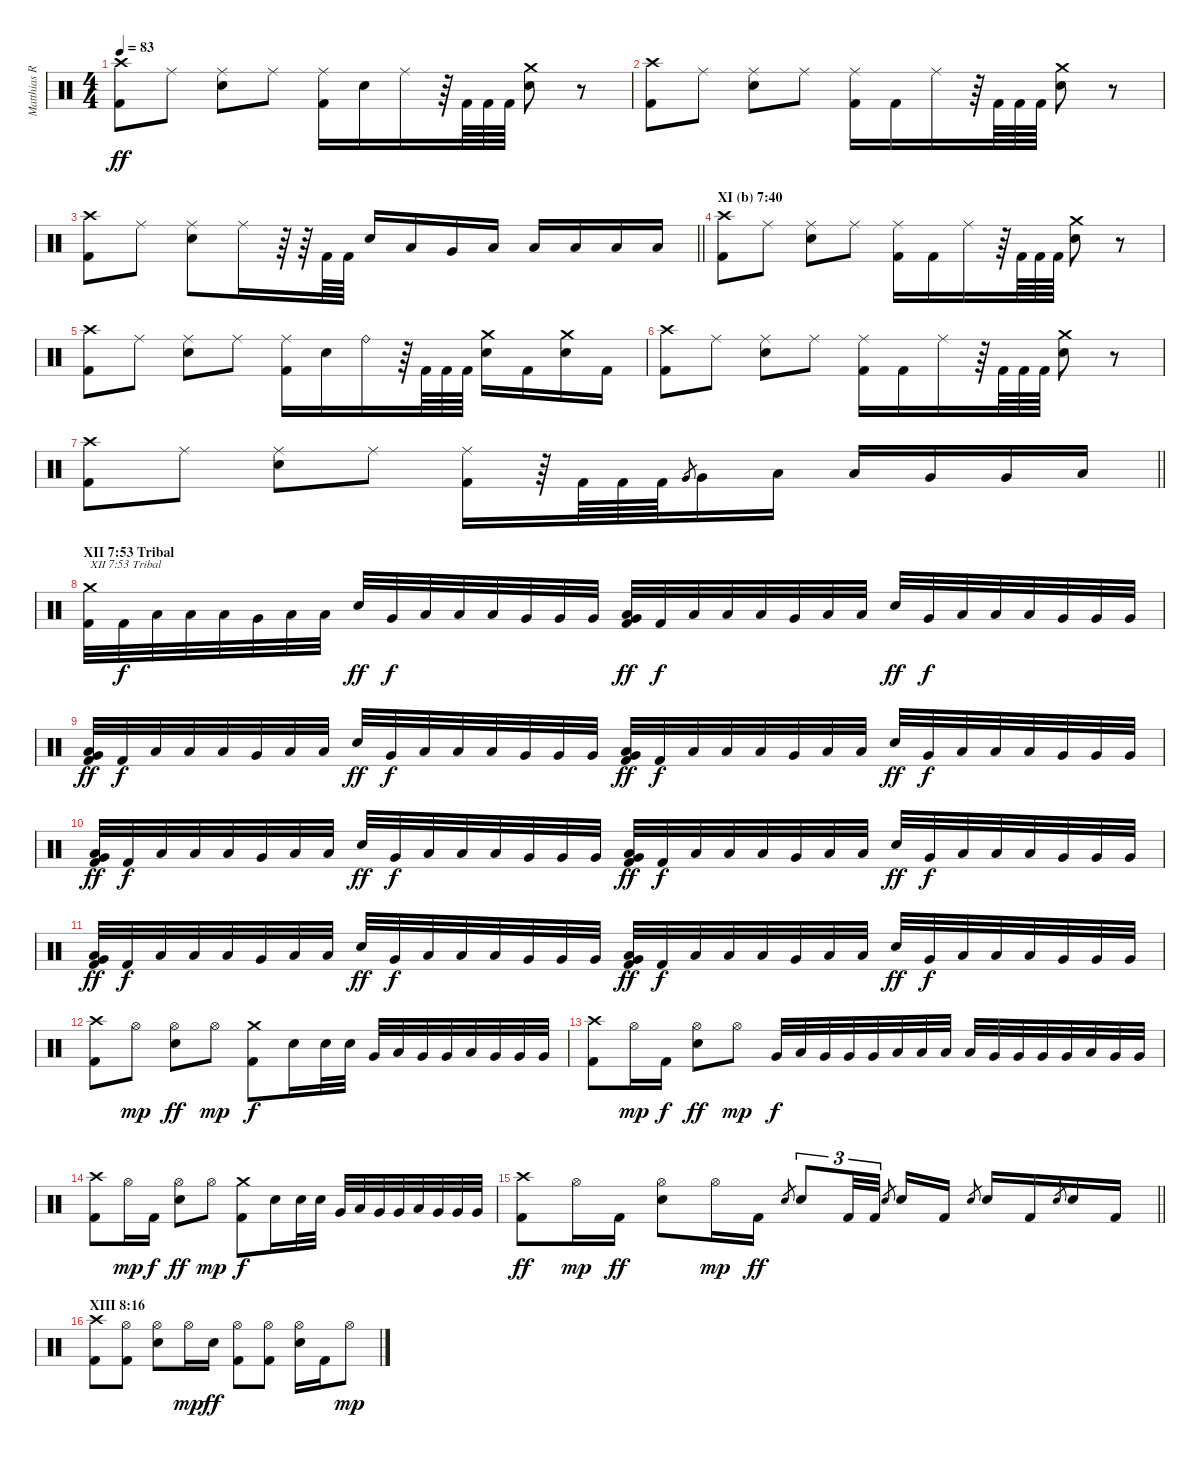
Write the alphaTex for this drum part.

\track ("Matthias R." "Matthias R") {instrument percussion}
\staff {score}
\articulation defaults
\ts (4 4)
\tempo 83
\clef neutral
\ks c
("Crash high (hit)" "Kick (hit) 2").8{dy ff} "Ride (middle)".8 ("Ride (middle)" "Electric Snare (hit)").8 "Ride (middle)".8 ("Ride (middle)" "Kick (hit) 2").16 "Electric Snare (hit)".16 "Ride (middle)".16 r.64 "Kick (hit) 2".64 "Kick (hit) 2".64 "Kick (hit) 2".64 ("Crash medium (hit)" "Electric Snare (hit)").8 r.8 |
("Crash high (hit)" "Kick (hit) 2").8 "Ride (middle)".8 ("Ride (middle)" "Electric Snare (hit)").8 "Ride (middle)".8 ("Ride (middle)" "Kick (hit) 2").16 "Kick (hit) 2".16 "Ride (middle)".16 r.64 "Kick (hit) 2".64 "Kick (hit) 2".64 "Kick (hit) 2".64 ("Crash medium (hit)" "Electric Snare (hit)").8 r.8 |
\barLineRight lightlight
("Crash high (hit)" "Kick (hit) 2").8 "Ride (middle)".8 ("Ride (middle)" "Electric Snare (hit)").8 "Ride (middle)".16 r.64 r.64 "Kick (hit) 2".64 "Kick (hit) 2".64 "Electric Snare (hit)".16 "Low Tom (hit)".16 "Very Low Tom (hit)".16 "Low Tom (hit)".16 "Low Tom (hit)".16 "Low Tom (hit)".16 "Low Tom (hit)".16 "Low Tom (hit)".16 |
\section ("" "XI (b) 7:40")
("Crash high (hit)" "Kick (hit) 2").8 "Ride (middle)".8 ("Ride (middle)" "Electric Snare (hit)").8 "Ride (middle)".8 ("Ride (middle)" "Kick (hit) 2").16 "Kick (hit) 2".16 "Ride (middle)".16 r.64 "Kick (hit) 2".64 "Kick (hit) 2".64 "Kick (hit) 2".64 ("Crash medium (hit)" "Electric Snare (hit)").8 r.8 |
("Crash high (hit)" "Kick (hit) 2").8 "Ride (middle)".8 ("Ride (middle)" "Electric Snare (hit)").8 "Ride (middle)".8 ("Ride (middle)" "Kick (hit) 2").16 "Electric Snare (hit)".16 "Ride (bell)".16 r.64 "Kick (hit) 2".64 "Kick (hit) 2".64 "Kick (hit) 2".64 ("Crash medium (hit)" "Electric Snare (hit)").16 "Kick (hit) 2".16 ("Crash medium (hit)" "Electric Snare (hit)").16 "Kick (hit) 2".16 |
("Crash high (hit)" "Kick (hit) 2").8 "Ride (middle)".8 ("Ride (middle)" "Electric Snare (hit)").8 "Ride (middle)".8 ("Ride (middle)" "Kick (hit) 2").16 "Kick (hit) 2".16 "Ride (middle)".16 r.64 "Kick (hit) 2".64 "Kick (hit) 2".64 "Kick (hit) 2".64 ("Crash medium (hit)" "Electric Snare (hit)").8 r.8 |
\barLineRight lightlight
("Crash high (hit)" "Kick (hit) 2").8 "Ride (middle)".8 ("Ride (middle)" "Electric Snare (hit)").8 "Ride (middle)".8 ("Ride (middle)" "Kick (hit) 2").16 r.64 "Kick (hit) 2".64 "Kick (hit) 2".64 "Kick (hit) 2".64 "Very Low Tom (hit)".8{gr} "Very Low Tom (hit)".16 "Low Tom (hit)".16 "Low Tom (hit)".16 "Very Low Tom (hit)".16 "Very Low Tom (hit)".16 "Low Floor Tom (hit)".16 |
\section ("" "XII 7:53 Tribal")
("Crash medium (hit)" "Kick (hit) 2").32{txt "XII 7:53 Tribal"} "Kick (hit) 2".32{dy f} "Low Tom (hit)".32 "Low Tom (hit)".32 "Low Tom (hit)".32 "Very Low Tom (hit)".32 "Low Tom (hit)".32 "Low Tom (hit)".32 "Electric Snare (hit)".32{dy ff} "Very Low Tom (hit)".32{dy f} "Low Tom (hit)".32 "Low Tom (hit)".32 "Low Tom (hit)".32 "Very Low Tom (hit)".32 "Very Low Tom (hit)".32 "Very Low Tom (hit)".32 ("Very Low Tom (hit)" "Low Floor Tom (hit)" "Kick (hit) 2").32{dy ff} "Kick (hit) 2".32{dy f} "Low Tom (hit)".32 "Low Tom (hit)".32 "Low Tom (hit)".32 "Very Low Tom (hit)".32 "Low Tom (hit)".32 "Low Tom (hit)".32 "Electric Snare (hit)".32{dy ff} "Very Low Tom (hit)".32{dy f} "Low Tom (hit)".32 "Low Tom (hit)".32 "Low Tom (hit)".32 "Very Low Tom (hit)".32 "Very Low Tom (hit)".32 "Very Low Tom (hit)".32 |
("Very Low Tom (hit)" "Low Floor Tom (hit)" "Kick (hit) 2").32{dy ff} "Kick (hit) 2".32{dy f} "Low Tom (hit)".32 "Low Tom (hit)".32 "Low Tom (hit)".32 "Very Low Tom (hit)".32 "Low Tom (hit)".32 "Low Tom (hit)".32 "Electric Snare (hit)".32{dy ff} "Very Low Tom (hit)".32{dy f} "Low Tom (hit)".32 "Low Tom (hit)".32 "Low Tom (hit)".32 "Very Low Tom (hit)".32 "Very Low Tom (hit)".32 "Very Low Tom (hit)".32 ("Very Low Tom (hit)" "Low Floor Tom (hit)" "Kick (hit) 2").32{dy ff} "Kick (hit) 2".32{dy f} "Low Tom (hit)".32 "Low Tom (hit)".32 "Low Tom (hit)".32 "Very Low Tom (hit)".32 "Low Tom (hit)".32 "Low Tom (hit)".32 "Electric Snare (hit)".32{dy ff} "Very Low Tom (hit)".32{dy f} "Low Tom (hit)".32 "Low Tom (hit)".32 "Low Tom (hit)".32 "Very Low Tom (hit)".32 "Very Low Tom (hit)".32 "Very Low Tom (hit)".32 |
("Very Low Tom (hit)" "Low Floor Tom (hit)" "Kick (hit) 2").32{dy ff} "Kick (hit) 2".32{dy f} "Low Tom (hit)".32 "Low Tom (hit)".32 "Low Tom (hit)".32 "Very Low Tom (hit)".32 "Low Tom (hit)".32 "Low Tom (hit)".32 "Electric Snare (hit)".32{dy ff} "Very Low Tom (hit)".32{dy f} "Low Tom (hit)".32 "Low Tom (hit)".32 "Low Tom (hit)".32 "Very Low Tom (hit)".32 "Very Low Tom (hit)".32 "Very Low Tom (hit)".32 ("Very Low Tom (hit)" "Low Floor Tom (hit)" "Kick (hit) 2").32{dy ff} "Kick (hit) 2".32{dy f} "Low Tom (hit)".32 "Low Tom (hit)".32 "Low Tom (hit)".32 "Very Low Tom (hit)".32 "Low Tom (hit)".32 "Low Tom (hit)".32 "Electric Snare (hit)".32{dy ff} "Very Low Tom (hit)".32{dy f} "Low Tom (hit)".32 "Low Tom (hit)".32 "Low Tom (hit)".32 "Very Low Tom (hit)".32 "Very Low Tom (hit)".32 "Very Low Tom (hit)".32 |
("Very Low Tom (hit)" "Low Floor Tom (hit)" "Kick (hit) 2").32{dy ff} "Kick (hit) 2".32{dy f} "Low Tom (hit)".32 "Low Tom (hit)".32 "Low Tom (hit)".32 "Very Low Tom (hit)".32 "Low Tom (hit)".32 "Low Tom (hit)".32 "Electric Snare (hit)".32{dy ff} "Very Low Tom (hit)".32{dy f} "Low Tom (hit)".32 "Low Tom (hit)".32 "Low Tom (hit)".32 "Very Low Tom (hit)".32 "Very Low Tom (hit)".32 "Very Low Tom (hit)".32 ("Very Low Tom (hit)" "Low Floor Tom (hit)" "Kick (hit) 2").32{dy ff} "Kick (hit) 2".32{dy f} "Low Tom (hit)".32 "Low Tom (hit)".32 "Low Tom (hit)".32 "Very Low Tom (hit)".32 "Low Tom (hit)".32 "Low Tom (hit)".32 "Electric Snare (hit)".32{dy ff} "Very Low Tom (hit)".32{dy f} "Low Tom (hit)".32 "Low Tom (hit)".32 "Low Tom (hit)".32 "Very Low Tom (hit)".32 "Very Low Tom (hit)".32 "Very Low Tom (hit)".32 |
("Crash high (hit)" "Kick (hit) 2").8 "Hi-Hat (open)".8{dy mp} ("Hi-Hat (open)" "Electric Snare (hit)").8{dy ff} "Hi-Hat (open)".8{dy mp} ("Crash medium (hit)" "Kick (hit) 2").8{dy f} "Electric Snare (hit)".16 "Electric Snare (hit)".32 "Electric Snare (hit)".32 "Very Low Tom (hit)".32 "Low Tom (hit)".32 "Very Low Tom (hit)".32 "Very Low Tom (hit)".32 "Low Tom (hit)".32 "Very Low Tom (hit)".32 "Very Low Tom (hit)".32 "Very Low Tom (hit)".32 |
("Crash high (hit)" "Kick (hit) 2").8 "Hi-Hat (open)".16{dy mp} "Kick (hit) 2".16{dy f} ("Hi-Hat (open)" "Electric Snare (hit)").8{dy ff} "Hi-Hat (open)".8{dy mp} "Very Low Tom (hit)".32{dy f} "Low Tom (hit)".32 "Very Low Tom (hit)".32 "Very Low Tom (hit)".32 "Very Low Tom (hit)".32 "Low Tom (hit)".32 "Low Tom (hit)".32 "Low Tom (hit)".32 "Low Tom (hit)".32 "Very Low Tom (hit)".32 "Very Low Tom (hit)".32 "Very Low Tom (hit)".32 "Very Low Tom (hit)".32 "Low Floor Tom (hit)".32 "Very Low Tom (hit)".32 "Very Low Tom (hit)".32 |
("Crash high (hit)" "Kick (hit) 2").8 "Hi-Hat (open)".16{dy mp} "Kick (hit) 2".16{dy f} ("Hi-Hat (open)" "Electric Snare (hit)").8{dy ff} "Hi-Hat (open)".8{dy mp} ("Crash medium (hit)" "Kick (hit) 2").8{dy f} "Electric Snare (hit)".16 "Electric Snare (hit)".32 "Electric Snare (hit)".32 "Very Low Tom (hit)".32 "Low Tom (hit)".32 "Very Low Tom (hit)".32 "Very Low Tom (hit)".32 "Low Tom (hit)".32 "Very Low Tom (hit)".32 "Very Low Tom (hit)".32 "Very Low Tom (hit)".32 |
\barLineRight lightlight
("Crash high (hit)" "Kick (hit) 2").8{dy ff} "Hi-Hat (open)".16{dy mp} "Kick (hit) 2".16{dy ff} ("Hi-Hat (open)" "Electric Snare (hit)").8 "Hi-Hat (open)".16{dy mp} "Kick (hit) 2".16{dy ff} "Electric Snare (hit)".8{gr} "Electric Snare (hit)".8{tu (3 2)} "Kick (hit) 2".32{tu (3 2)} "Kick (hit) 2".32{tu (3 2)} "Electric Snare (hit)".8{gr beam splitsecondary} "Electric Snare (hit)".16 "Kick (hit) 2".16 "Electric Snare (hit)".8{gr} "Electric Snare (hit)".16 "Kick (hit) 2".16 "Electric Snare (hit)".8{gr} "Electric Snare (hit)".16 "Kick (hit) 2".16 |
\section ("" "XIII 8:16")
("Crash high (hit)" "Kick (hit) 2").8 ("Hi-Hat (open)" "Kick (hit) 2").8 ("Hi-Hat (open)" "Electric Snare (hit)").8 "Hi-Hat (open)".16{dy mp} "Electric Snare (hit)".16{dy ff} ("Hi-Hat (open)" "Kick (hit) 2").8 ("Hi-Hat (open)" "Kick (hit) 2").8 ("Hi-Hat (open)" "Electric Snare (hit)").16 "Kick (hit) 2".16 "Hi-Hat (open)".8{dy mp}
